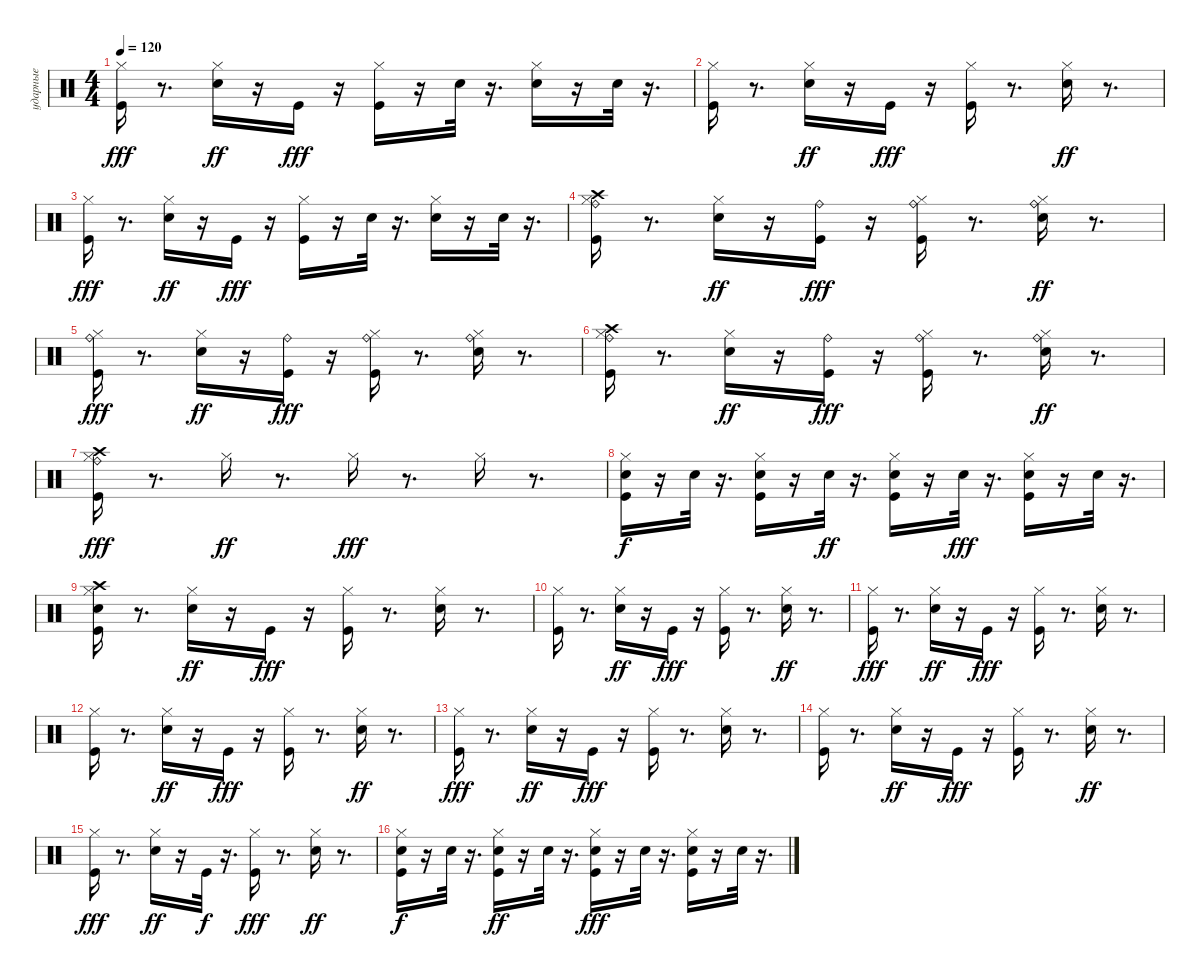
\track ("ударные" "ударные") {instrument percussion}
\staff {score}
\articulation defaults
\ts (4 4)
\tempo 120
\clef neutral
\ks c
("Hi-Hat (closed)" "Kick (hit)").16{dy fff} r.8{d} ("Electric Snare (hit)" "Hi-Hat (closed)").16{dy ff} r.16 "Kick (hit)".16{dy fff} r.16 ("Kick (hit)" "Hi-Hat (closed)").16 r.16 "Electric Snare (hit)".32 r.16{d} ("Electric Snare (hit)" "Hi-Hat (closed)").16 r.16 "Electric Snare (hit)".32 r.16{d} |
("Hi-Hat (closed)" "Kick (hit)").16 r.8{d} ("Electric Snare (hit)" "Hi-Hat (closed)").16{dy ff} r.16 "Kick (hit)".16{dy fff} r.16 ("Kick (hit)" "Hi-Hat (closed)").16 r.8{d} ("Electric Snare (hit)" "Hi-Hat (closed)").16{dy ff} r.8{d} |
("Hi-Hat (closed)" "Kick (hit)").16{dy fff} r.8{d} ("Electric Snare (hit)" "Hi-Hat (closed)").16{dy ff} r.16 "Kick (hit)".16{dy fff} r.16 ("Kick (hit)" "Hi-Hat (closed)").16 r.16 "Electric Snare (hit)".32 r.16{d} ("Electric Snare (hit)" "Hi-Hat (closed)").16 r.16 "Electric Snare (hit)".32 r.16{d} |
("Ride (bell)" "Crash high (hit)" "Hi-Hat (closed)" "Kick (hit)").16 r.8{d} ("Electric Snare (hit)" "Hi-Hat (closed)").16{dy ff} r.16 ("Ride (bell)" "Kick (hit)").16{dy fff} r.16 ("Ride (bell)" "Kick (hit)" "Hi-Hat (closed)").16 r.8{d} ("Ride (bell)" "Electric Snare (hit)" "Hi-Hat (closed)").16{dy ff} r.8{d} |
("Ride (bell)" "Hi-Hat (closed)" "Kick (hit)").16{dy fff} r.8{d} ("Electric Snare (hit)" "Hi-Hat (closed)").16{dy ff} r.16 ("Ride (bell)" "Kick (hit)").16{dy fff} r.16 ("Ride (bell)" "Kick (hit)" "Hi-Hat (closed)").16 r.8{d} ("Ride (bell)" "Electric Snare (hit)" "Hi-Hat (closed)").16 r.8{d} |
("Ride (bell)" "Crash high (hit)" "Hi-Hat (closed)" "Kick (hit)").16 r.8{d} ("Electric Snare (hit)" "Hi-Hat (closed)").16{dy ff} r.16 ("Ride (bell)" "Kick (hit)").16{dy fff} r.16 ("Ride (bell)" "Kick (hit)" "Hi-Hat (closed)").16 r.8{d} ("Ride (bell)" "Electric Snare (hit)" "Hi-Hat (closed)").16{dy ff} r.8{d} |
("Ride (bell)" "Crash high (hit)" "Hi-Hat (closed)" "Kick (hit)").16{dy fff} r.8{d} "Hi-Hat (closed)".16{dy ff} r.8{d} "Hi-Hat (closed)".16{dy fff} r.8{d} "Hi-Hat (closed)".16 r.8{d} |
("Electric Snare (hit)" "Hi-Hat (closed)" "Kick (hit)").16{dy f} r.16 "Electric Snare (hit)".32 r.16{d} ("Kick (hit)" "Electric Snare (hit)" "Hi-Hat (closed)").16 r.16 "Electric Snare (hit)".32{dy ff} r.16{d} ("Kick (hit)" "Electric Snare (hit)" "Hi-Hat (closed)").16 r.16 "Electric Snare (hit)".32{dy fff} r.16{d} ("Kick (hit)" "Electric Snare (hit)" "Hi-Hat (closed)").16 r.16 "Electric Snare (hit)".32 r.16{d} |
("Electric Snare (hit)" "Crash high (hit)" "Hi-Hat (closed)" "Kick (hit)").16 r.8{d} ("Electric Snare (hit)" "Hi-Hat (closed)").16{dy ff} r.16 "Kick (hit)".16{dy fff} r.16 ("Kick (hit)" "Hi-Hat (closed)").16 r.8{d} ("Electric Snare (hit)" "Hi-Hat (closed)").16 r.8{d} |
("Hi-Hat (closed)" "Kick (hit)").16 r.8{d} ("Electric Snare (hit)" "Hi-Hat (closed)").16{dy ff} r.16 "Kick (hit)".16{dy fff} r.16 ("Kick (hit)" "Hi-Hat (closed)").16 r.8{d} ("Electric Snare (hit)" "Hi-Hat (closed)").16{dy ff} r.8{d} |
("Hi-Hat (closed)" "Kick (hit)").16{dy fff} r.8{d} ("Electric Snare (hit)" "Hi-Hat (closed)").16{dy ff} r.16 "Kick (hit)".16{dy fff} r.16 ("Kick (hit)" "Hi-Hat (closed)").16 r.8{d} ("Electric Snare (hit)" "Hi-Hat (closed)").16 r.8{d} |
("Hi-Hat (closed)" "Kick (hit)").16 r.8{d} ("Electric Snare (hit)" "Hi-Hat (closed)").16{dy ff} r.16 "Kick (hit)".16{dy fff} r.16 ("Kick (hit)" "Hi-Hat (closed)").16 r.8{d} ("Electric Snare (hit)" "Hi-Hat (closed)").16{dy ff} r.8{d} |
("Hi-Hat (closed)" "Kick (hit)").16{dy fff} r.8{d} ("Electric Snare (hit)" "Hi-Hat (closed)").16{dy ff} r.16 "Kick (hit)".16{dy fff} r.16 ("Kick (hit)" "Hi-Hat (closed)").16 r.8{d} ("Electric Snare (hit)" "Hi-Hat (closed)").16 r.8{d} |
("Hi-Hat (closed)" "Kick (hit)").16 r.8{d} ("Electric Snare (hit)" "Hi-Hat (closed)").16{dy ff} r.16 "Kick (hit)".16{dy fff} r.16 ("Kick (hit)" "Hi-Hat (closed)").16 r.8{d} ("Electric Snare (hit)" "Hi-Hat (closed)").16{dy ff} r.8{d} |
("Hi-Hat (closed)" "Kick (hit)").16{dy fff} r.8{d} ("Electric Snare (hit)" "Hi-Hat (closed)").16{dy ff} r.16 "Kick (hit)".32{dy f} r.16{d} ("Kick (hit)" "Hi-Hat (closed)").16{dy fff} r.8{d} ("Electric Snare (hit)" "Hi-Hat (closed)").16{dy ff} r.8{d} |
("Electric Snare (hit)" "Hi-Hat (closed)" "Kick (hit)").16{dy f} r.16 "Electric Snare (hit)".32 r.16{d} ("Kick (hit)" "Electric Snare (hit)" "Hi-Hat (closed)").16{dy ff} r.16 "Electric Snare (hit)".32 r.16{d} ("Electric Snare (hit)" "Kick (hit)" "Hi-Hat (closed)").16{dy fff} r.16 "Electric Snare (hit)".32 r.16{d} ("Kick (hit)" "Electric Snare (hit)" "Hi-Hat (closed)").16 r.16 "Electric Snare (hit)".32 r.16{d}
